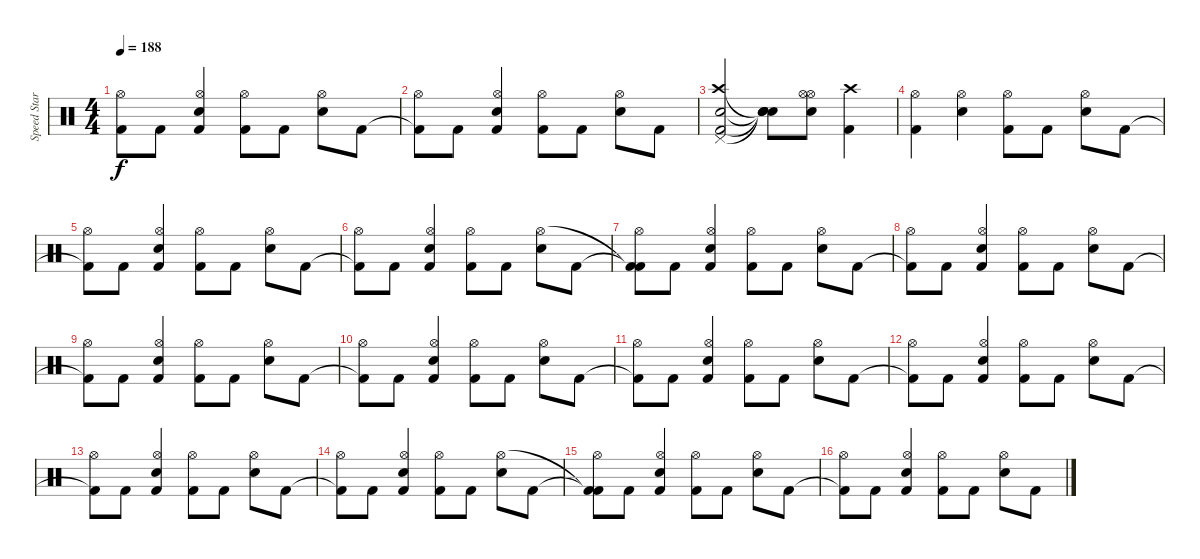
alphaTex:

\track ("Speed Star Sypan Joe" "Speed Star") {instrument percussion}
\staff {score}
\articulation defaults
\ts (4 4)
\tempo 188
\clef neutral
\ks c
("Kick (hit) 2"{t} "Hi-Hat (open)").8{dy f} "Kick (hit) 2".8 ("Kick (hit) 2" "Electric Snare (hit)" "Hi-Hat (open)").4 ("Kick (hit) 2" "Hi-Hat (open)").8 "Kick (hit) 2".8 ("Electric Snare (hit)" "Hi-Hat (open)").8 "Kick (hit) 2".8 |
("Kick (hit) 2"{t} "Hi-Hat (open)").8 "Kick (hit) 2".8 ("Kick (hit) 2" "Electric Snare (hit)" "Hi-Hat (open)").4 ("Kick (hit) 2" "Hi-Hat (open)").8 "Kick (hit) 2".8 ("Electric Snare (hit)" "Hi-Hat (open)").8 "Kick (hit) 2".8 |
("Kick (hit) 2" "Electric Snare (hit)" "Crash high (hit)" "Pedal Hi-Hat (hit)").2 ("Snare (hit)"{t} "Snare (hit)"{t} "Snare (hit)"{t} "Snare (hit)"{t}).8 ("Electric Snare (hit)" "Hi-Hat (open)" "Hi-Hat (open)").8 ("Kick (hit) 2" "Crash high (hit)").4 |
("Kick (hit) 2" "Hi-Hat (open)").4 ("Electric Snare (hit)" "Hi-Hat (open)").4 ("Kick (hit) 2" "Hi-Hat (open)").8 "Kick (hit) 2".8 ("Electric Snare (hit)" "Hi-Hat (open)").8 "Kick (hit) 2".8 |
("Kick (hit) 2"{t} "Hi-Hat (open)").8 "Kick (hit) 2".8 ("Kick (hit) 2" "Electric Snare (hit)" "Hi-Hat (open)").4 ("Kick (hit) 2" "Hi-Hat (open)").8 "Kick (hit) 2".8 ("Electric Snare (hit)" "Hi-Hat (open)").8 "Kick (hit) 2".8 |
("Kick (hit) 2"{t} "Hi-Hat (open)").8 "Kick (hit) 2".8 ("Kick (hit) 2" "Electric Snare (hit)" "Hi-Hat (open)").4 ("Kick (hit) 2" "Hi-Hat (open)").8 "Kick (hit) 2".8 ("Electric Snare (hit)" "Hi-Hat (open)").8 "Kick (hit) 2".8 |
("Kick (hit) 2"{t} "Kick (hit) 2"{t} "Hi-Hat (open)").8 "Kick (hit) 2".8 ("Kick (hit) 2" "Electric Snare (hit)" "Hi-Hat (open)").4 ("Kick (hit) 2" "Hi-Hat (open)").8 "Kick (hit) 2".8 ("Electric Snare (hit)" "Hi-Hat (open)").8 "Kick (hit) 2".8 |
("Kick (hit) 2"{t} "Hi-Hat (open)").8 "Kick (hit) 2".8 ("Kick (hit) 2" "Electric Snare (hit)" "Hi-Hat (open)").4 ("Kick (hit) 2" "Hi-Hat (open)").8 "Kick (hit) 2".8 ("Electric Snare (hit)" "Hi-Hat (open)").8 "Kick (hit) 2".8 |
("Kick (hit) 2"{t} "Hi-Hat (open)").8 "Kick (hit) 2".8 ("Kick (hit) 2" "Electric Snare (hit)" "Hi-Hat (open)").4 ("Kick (hit) 2" "Hi-Hat (open)").8 "Kick (hit) 2".8 ("Electric Snare (hit)" "Hi-Hat (open)").8 "Kick (hit) 2".8 |
("Kick (hit) 2"{t} "Hi-Hat (open)").8 "Kick (hit) 2".8 ("Kick (hit) 2" "Electric Snare (hit)" "Hi-Hat (open)").4 ("Kick (hit) 2" "Hi-Hat (open)").8 "Kick (hit) 2".8 ("Electric Snare (hit)" "Hi-Hat (open)").8 "Kick (hit) 2".8 |
("Kick (hit) 2"{t} "Hi-Hat (open)").8 "Kick (hit) 2".8 ("Kick (hit) 2" "Electric Snare (hit)" "Hi-Hat (open)").4 ("Kick (hit) 2" "Hi-Hat (open)").8 "Kick (hit) 2".8 ("Electric Snare (hit)" "Hi-Hat (open)").8 "Kick (hit) 2".8 |
("Kick (hit) 2"{t} "Hi-Hat (open)").8 "Kick (hit) 2".8 ("Kick (hit) 2" "Electric Snare (hit)" "Hi-Hat (open)").4 ("Kick (hit) 2" "Hi-Hat (open)").8 "Kick (hit) 2".8 ("Electric Snare (hit)" "Hi-Hat (open)").8 "Kick (hit) 2".8 |
("Kick (hit) 2"{t} "Hi-Hat (open)").8 "Kick (hit) 2".8 ("Kick (hit) 2" "Electric Snare (hit)" "Hi-Hat (open)").4 ("Kick (hit) 2" "Hi-Hat (open)").8 "Kick (hit) 2".8 ("Electric Snare (hit)" "Hi-Hat (open)").8 "Kick (hit) 2".8 |
("Kick (hit) 2"{t} "Hi-Hat (open)").8 "Kick (hit) 2".8 ("Kick (hit) 2" "Electric Snare (hit)" "Hi-Hat (open)").4 ("Kick (hit) 2" "Hi-Hat (open)").8 "Kick (hit) 2".8 ("Electric Snare (hit)" "Hi-Hat (open)").8 "Kick (hit) 2".8 |
("Kick (hit) 2"{t} "Kick (hit) 2"{t} "Hi-Hat (open)").8 "Kick (hit) 2".8 ("Kick (hit) 2" "Electric Snare (hit)" "Hi-Hat (open)").4 ("Kick (hit) 2" "Hi-Hat (open)").8 "Kick (hit) 2".8 ("Electric Snare (hit)" "Hi-Hat (open)").8 "Kick (hit) 2".8 |
("Kick (hit) 2"{t} "Hi-Hat (open)").8 "Kick (hit) 2".8 ("Kick (hit) 2" "Electric Snare (hit)" "Hi-Hat (open)").4 ("Kick (hit) 2" "Hi-Hat (open)").8 "Kick (hit) 2".8 ("Electric Snare (hit)" "Hi-Hat (open)").8 "Kick (hit) 2".8
